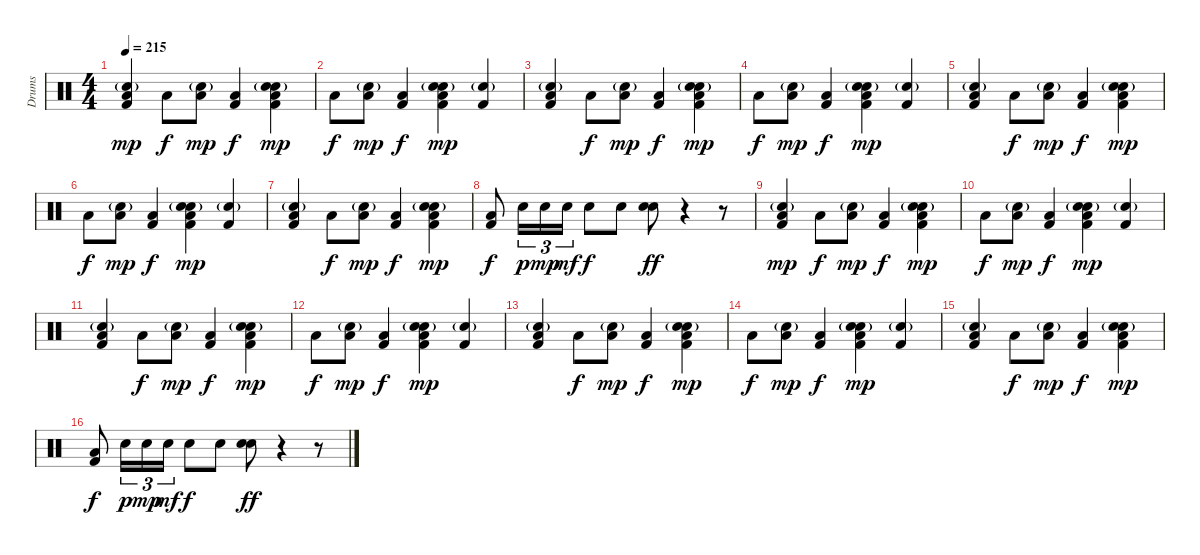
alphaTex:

\track ("Drums" "Drums") {instrument percussion}
\staff {score}
\articulation defaults
\ts (4 4)
\tempo 215
\clef neutral
\ks c
("Electric Snare (hit)"{g} "Low Floor Tom (hit)" "Kick (hit) 2").4{dy mp} "Low Floor Tom (hit)".8{dy f} ("Electric Snare (hit)"{g} "Low Floor Tom (hit)").8{dy mp} ("Low Floor Tom (hit)" "Kick (hit) 2").4{dy f} ("Electric Snare (hit)" "Kick (hit) 2" "Low Floor Tom (hit)" "Snare (hit) 2"{g}).4{dy mp} |
"Low Floor Tom (hit)".8{dy f} ("Electric Snare (hit)"{g} "Low Floor Tom (hit)").8{dy mp} ("Low Floor Tom (hit)" "Kick (hit) 2").4{dy f} ("Snare (hit) 2"{g} "Electric Snare (hit)" "Kick (hit) 2" "Low Floor Tom (hit)").4{dy mp} ("Electric Snare (hit)"{g} "Kick (hit) 2").4 |
("Electric Snare (hit)"{g} "Low Floor Tom (hit)" "Kick (hit) 2").4 "Low Floor Tom (hit)".8{dy f} ("Electric Snare (hit)"{g} "Low Floor Tom (hit)").8{dy mp} ("Low Floor Tom (hit)" "Kick (hit) 2").4{dy f} ("Electric Snare (hit)" "Kick (hit) 2" "Low Floor Tom (hit)" "Snare (hit) 2"{g}).4{dy mp} |
"Low Floor Tom (hit)".8{dy f} ("Electric Snare (hit)"{g} "Low Floor Tom (hit)").8{dy mp} ("Low Floor Tom (hit)" "Kick (hit) 2").4{dy f} ("Snare (hit) 2"{g} "Electric Snare (hit)" "Kick (hit) 2" "Low Floor Tom (hit)").4{dy mp} ("Electric Snare (hit)"{g} "Kick (hit) 2").4 |
("Electric Snare (hit)"{g} "Low Floor Tom (hit)" "Kick (hit) 2").4 "Low Floor Tom (hit)".8{dy f} ("Electric Snare (hit)"{g} "Low Floor Tom (hit)").8{dy mp} ("Low Floor Tom (hit)" "Kick (hit) 2").4{dy f} ("Electric Snare (hit)" "Kick (hit) 2" "Low Floor Tom (hit)" "Snare (hit) 2"{g}).4{dy mp} |
"Low Floor Tom (hit)".8{dy f} ("Electric Snare (hit)"{g} "Low Floor Tom (hit)").8{dy mp} ("Low Floor Tom (hit)" "Kick (hit) 2").4{dy f} ("Snare (hit) 2"{g} "Electric Snare (hit)" "Kick (hit) 2" "Low Floor Tom (hit)").4{dy mp} ("Electric Snare (hit)"{g} "Kick (hit) 2").4 |
("Electric Snare (hit)"{g} "Low Floor Tom (hit)" "Kick (hit) 2").4 "Low Floor Tom (hit)".8{dy f} ("Electric Snare (hit)"{g} "Low Floor Tom (hit)").8{dy mp} ("Low Floor Tom (hit)" "Kick (hit) 2").4{dy f} ("Electric Snare (hit)" "Kick (hit) 2" "Low Floor Tom (hit)" "Snare (hit) 2"{g}).4{dy mp} |
("Low Floor Tom (hit)" "Kick (hit) 2").8{dy f} "Snare (hit) 2".16{tu (3 2) dy p} "Snare (hit) 2".16{tu (3 2) dy mp} "Snare (hit) 2".16{tu (3 2) dy mf} "Snare (hit) 2".8{dy f} "Snare (hit) 2".8 ("Electric Snare (hit)" "Snare (hit) 2").8{dy ff} r.4 r.8 |
("Electric Snare (hit)"{g} "Low Floor Tom (hit)" "Kick (hit) 2").4{dy mp} "Low Floor Tom (hit)".8{dy f} ("Electric Snare (hit)"{g} "Low Floor Tom (hit)").8{dy mp} ("Low Floor Tom (hit)" "Kick (hit) 2").4{dy f} ("Electric Snare (hit)" "Kick (hit) 2" "Low Floor Tom (hit)" "Snare (hit) 2"{g}).4{dy mp} |
"Low Floor Tom (hit)".8{dy f} ("Electric Snare (hit)"{g} "Low Floor Tom (hit)").8{dy mp} ("Low Floor Tom (hit)" "Kick (hit) 2").4{dy f} ("Snare (hit) 2"{g} "Electric Snare (hit)" "Kick (hit) 2" "Low Floor Tom (hit)").4{dy mp} ("Electric Snare (hit)"{g} "Kick (hit) 2").4 |
("Electric Snare (hit)"{g} "Low Floor Tom (hit)" "Kick (hit) 2").4 "Low Floor Tom (hit)".8{dy f} ("Electric Snare (hit)"{g} "Low Floor Tom (hit)").8{dy mp} ("Low Floor Tom (hit)" "Kick (hit) 2").4{dy f} ("Electric Snare (hit)" "Kick (hit) 2" "Low Floor Tom (hit)" "Snare (hit) 2"{g}).4{dy mp} |
"Low Floor Tom (hit)".8{dy f} ("Electric Snare (hit)"{g} "Low Floor Tom (hit)").8{dy mp} ("Low Floor Tom (hit)" "Kick (hit) 2").4{dy f} ("Snare (hit) 2"{g} "Electric Snare (hit)" "Kick (hit) 2" "Low Floor Tom (hit)").4{dy mp} ("Electric Snare (hit)"{g} "Kick (hit) 2").4 |
("Electric Snare (hit)"{g} "Low Floor Tom (hit)" "Kick (hit) 2").4 "Low Floor Tom (hit)".8{dy f} ("Electric Snare (hit)"{g} "Low Floor Tom (hit)").8{dy mp} ("Low Floor Tom (hit)" "Kick (hit) 2").4{dy f} ("Electric Snare (hit)" "Kick (hit) 2" "Low Floor Tom (hit)" "Snare (hit) 2"{g}).4{dy mp} |
"Low Floor Tom (hit)".8{dy f} ("Electric Snare (hit)"{g} "Low Floor Tom (hit)").8{dy mp} ("Low Floor Tom (hit)" "Kick (hit) 2").4{dy f} ("Snare (hit) 2"{g} "Electric Snare (hit)" "Kick (hit) 2" "Low Floor Tom (hit)").4{dy mp} ("Electric Snare (hit)"{g} "Kick (hit) 2").4 |
("Electric Snare (hit)"{g} "Low Floor Tom (hit)" "Kick (hit) 2").4 "Low Floor Tom (hit)".8{dy f} ("Electric Snare (hit)"{g} "Low Floor Tom (hit)").8{dy mp} ("Low Floor Tom (hit)" "Kick (hit) 2").4{dy f} ("Electric Snare (hit)" "Kick (hit) 2" "Low Floor Tom (hit)" "Snare (hit) 2"{g}).4{dy mp} |
("Low Floor Tom (hit)" "Kick (hit) 2").8{dy f} "Snare (hit) 2".16{tu (3 2) dy p} "Snare (hit) 2".16{tu (3 2) dy mp} "Snare (hit) 2".16{tu (3 2) dy mf} "Snare (hit) 2".8{dy f} "Snare (hit) 2".8 ("Electric Snare (hit)" "Snare (hit) 2").8{dy ff} r.4 r.8
